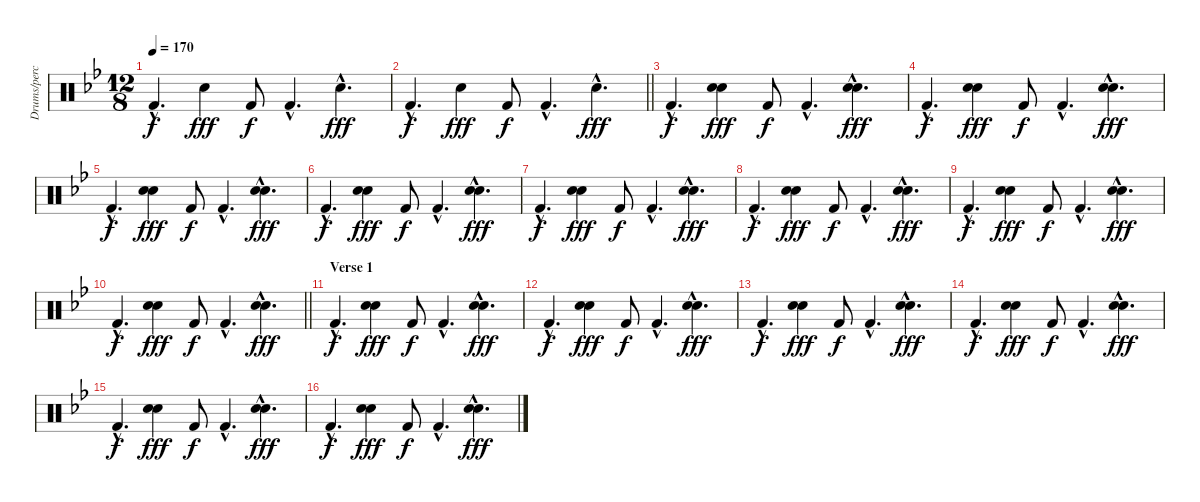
\track ("Drums/percussion" "Drums/perc") {instrument percussion}
\staff {score}
\articulation defaults
\ts (12 8)
\tempo 170
\clef neutral
\ks bb "Kick (hit) 2"{hac}.4{d dy f} "Hand Clap (hit)".4{dy fff} "Kick (hit) 2".8{dy f} "Kick (hit) 2"{hac}.4{d} "Hand Clap (hit)"{hac}.4{d dy fff}
|
\barLineRight lightlight "Kick (hit) 2"{hac}.4{d dy f} "Hand Clap (hit)".4{dy fff} "Kick (hit) 2".8{dy f} "Kick (hit) 2"{hac}.4{d} "Hand Clap (hit)"{hac}.4{d dy fff}
|
"Kick (hit) 2"{hac}.4{d dy f} ("Hand Clap (hit)" "Snare (hit) 2").4{dy fff} "Kick (hit) 2".8{dy f} "Kick (hit) 2"{hac}.4{d} ("Hand Clap (hit)"{hac} "Snare (hit) 2"{hac}).4{d dy fff} |
"Kick (hit) 2"{hac}.4{d dy f} ("Hand Clap (hit)" "Snare (hit) 2").4{dy fff} "Kick (hit) 2".8{dy f} "Kick (hit) 2"{hac}.4{d} ("Hand Clap (hit)"{hac} "Snare (hit) 2"{hac}).4{d dy fff} |
"Kick (hit) 2"{hac}.4{d dy f} ("Hand Clap (hit)" "Snare (hit) 2").4{dy fff} "Kick (hit) 2".8{dy f} "Kick (hit) 2"{hac}.4{d} ("Hand Clap (hit)"{hac} "Snare (hit) 2"{hac}).4{d dy fff} |
"Kick (hit) 2"{hac}.4{d dy f} ("Hand Clap (hit)" "Snare (hit) 2").4{dy fff} "Kick (hit) 2".8{dy f} "Kick (hit) 2"{hac}.4{d} ("Hand Clap (hit)"{hac} "Snare (hit) 2"{hac}).4{d dy fff} |
"Kick (hit) 2"{hac}.4{d dy f} ("Hand Clap (hit)" "Snare (hit) 2").4{dy fff} "Kick (hit) 2".8{dy f} "Kick (hit) 2"{hac}.4{d} ("Hand Clap (hit)"{hac} "Snare (hit) 2"{hac}).4{d dy fff} |
"Kick (hit) 2"{hac}.4{d dy f} ("Hand Clap (hit)" "Snare (hit) 2").4{dy fff} "Kick (hit) 2".8{dy f} "Kick (hit) 2"{hac}.4{d} ("Hand Clap (hit)"{hac} "Snare (hit) 2"{hac}).4{d dy fff} |
"Kick (hit) 2"{hac}.4{d dy f} ("Hand Clap (hit)" "Snare (hit) 2").4{dy fff} "Kick (hit) 2".8{dy f} "Kick (hit) 2"{hac}.4{d} ("Hand Clap (hit)"{hac} "Snare (hit) 2"{hac}).4{d dy fff} |
\barLineRight lightlight "Kick (hit) 2"{hac}.4{d dy f}
("Hand Clap (hit)" "Snare (hit) 2").4{dy fff} "Kick (hit) 2".8{dy f} "Kick (hit) 2"{hac}.4{d} ("Hand Clap (hit)"{hac} "Snare (hit) 2"{hac}).4{d dy fff} |
\section ("" "Verse 1")
"Kick (hit) 2"{hac}.4{d dy f} ("Hand Clap (hit)" "Snare (hit) 2").4{dy fff} "Kick (hit) 2".8{dy f} "Kick (hit) 2"{hac}.4{d} ("Hand Clap (hit)"{hac} "Snare (hit) 2"{hac}).4{d dy fff} |
"Kick (hit) 2"{hac}.4{d dy f} ("Hand Clap (hit)" "Snare (hit) 2").4{dy fff} "Kick (hit) 2".8{dy f} "Kick (hit) 2"{hac}.4{d} ("Hand Clap (hit)"{hac} "Snare (hit) 2"{hac}).4{d dy fff} |
"Kick (hit) 2"{hac}.4{d dy f} ("Hand Clap (hit)" "Snare (hit) 2").4{dy fff} "Kick (hit) 2".8{dy f} "Kick (hit) 2"{hac}.4{d} ("Hand Clap (hit)"{hac} "Snare (hit) 2"{hac}).4{d dy fff} |
"Kick (hit) 2"{hac}.4{d dy f} ("Hand Clap (hit)" "Snare (hit) 2").4{dy fff} "Kick (hit) 2".8{dy f} "Kick (hit) 2"{hac}.4{d} ("Hand Clap (hit)"{hac} "Snare (hit) 2"{hac}).4{d dy fff} |
"Kick (hit) 2"{hac}.4{d dy f} ("Hand Clap (hit)" "Snare (hit) 2").4{dy fff} "Kick (hit) 2".8{dy f} "Kick (hit) 2"{hac}.4{d} ("Hand Clap (hit)"{hac} "Snare (hit) 2"{hac}).4{d dy fff} |
"Kick (hit) 2"{hac}.4{d dy f} ("Hand Clap (hit)" "Snare (hit) 2").4{dy fff} "Kick (hit) 2".8{dy f} "Kick (hit) 2"{hac}.4{d} ("Hand Clap (hit)"{hac} "Snare (hit) 2"{hac}).4{d dy fff}
